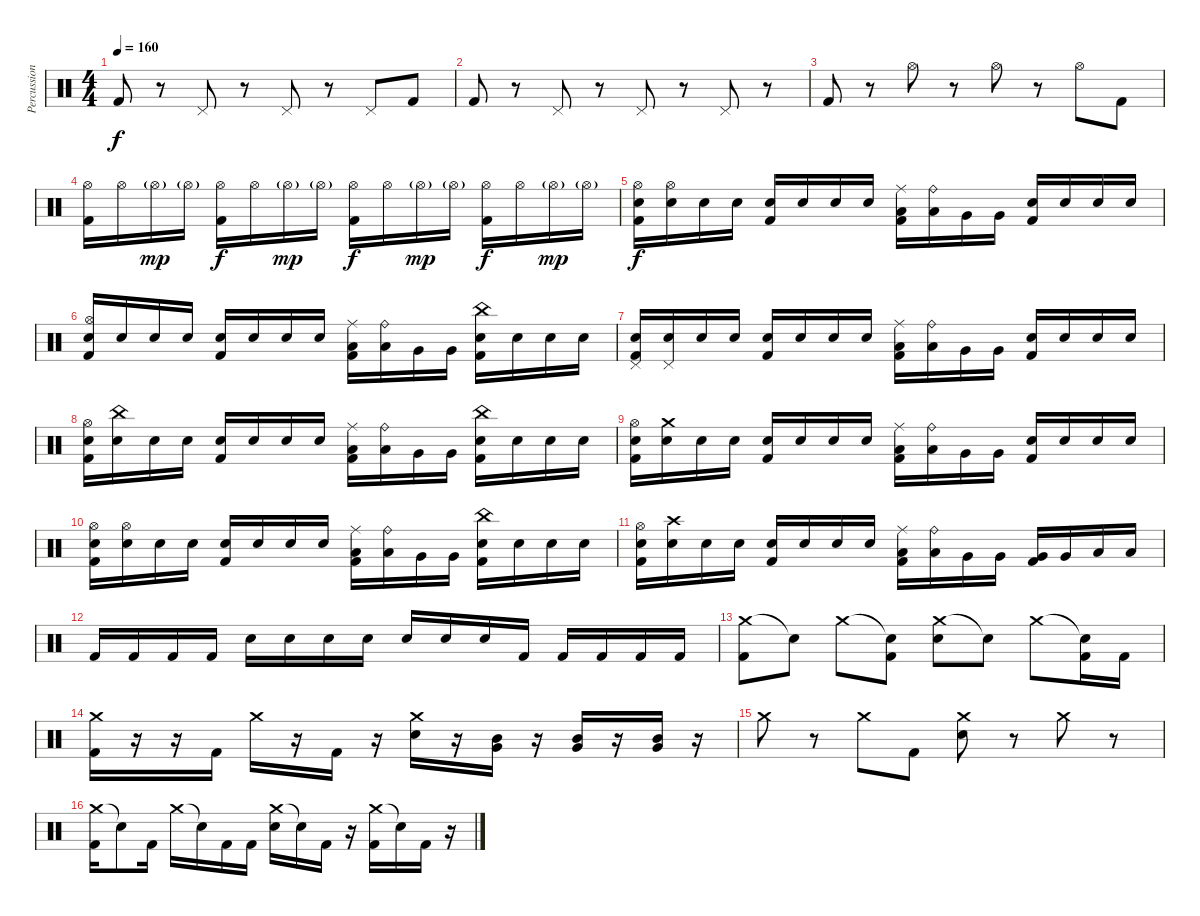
\track ("Percussion" "Percussion") {instrument percussion}
\staff {score}
\articulation defaults
\ts (4 4)
\tempo 160
\clef neutral
\ks c "Kick (hit) 2".8{dy f}
r.8 "Pedal Hi-Hat (hit)".8 r.8 "Pedal Hi-Hat (hit)".8 r.8 "Pedal Hi-Hat (hit)".8 "Kick (hit) 2".8 |
"Kick (hit) 2".8 r.8 "Pedal Hi-Hat (hit)".8 r.8 "Pedal Hi-Hat (hit)".8 r.8 "Pedal Hi-Hat (hit)".8 r.8 |
"Kick (hit) 2".8 r.8 "Hi-Hat (open)".8 r.8 "Hi-Hat (open)".8 r.8 "Hi-Hat (open)".8 "Kick (hit) 2".8 |
("Hi-Hat (open)" "Kick (hit) 2").16 "Hi-Hat (open)".16 "Hi-Hat (open)"{g}.16{dy mp} "Hi-Hat (open)"{g}.16 ("Hi-Hat (open)" "Kick (hit) 2").16{dy f} "Hi-Hat (open)".16 "Hi-Hat (open)"{g}.16{dy mp} "Hi-Hat (open)"{g}.16 ("Hi-Hat (open)" "Kick (hit) 2").16{dy f} "Hi-Hat (open)".16 "Hi-Hat (open)"{g}.16{dy mp} "Hi-Hat (open)"{g}.16 ("Hi-Hat (open)" "Kick (hit) 2").16{dy f} "Hi-Hat (open)".16 "Hi-Hat (open)"{g}.16{dy mp} "Hi-Hat (open)"{g}.16 |
("Hi-Hat (open)" "Electric Snare (hit)" "Kick (hit) 2").16{dy f} ("Hi-Hat (open)" "Electric Snare (hit)").16 "Electric Snare (hit)".16 "Electric Snare (hit)".16 ("Electric Snare (hit)" "Kick (hit) 2").16 "Electric Snare (hit)".16 "Electric Snare (hit)".16 "Electric Snare (hit)".16 ("Ride (middle)" "Low Tom (hit)" "Kick (hit) 2").16 ("Ride (bell)" "Low Tom (hit)").16 "Very Low Tom (hit)".16 "Very Low Tom (hit)".16 ("Electric Snare (hit)" "Kick (hit) 2").16 "Electric Snare (hit)".16 "Electric Snare (hit)".16 "Electric Snare (hit)".16 |
("Hi-Hat (open)" "Electric Snare (hit)" "Kick (hit) 2").16 "Electric Snare (hit)".16 "Electric Snare (hit)".16 "Electric Snare (hit)".16 ("Electric Snare (hit)" "Kick (hit) 2").16 "Electric Snare (hit)".16 "Electric Snare (hit)".16 "Electric Snare (hit)".16 ("Ride (middle)" "Low Tom (hit)" "Kick (hit) 2").16 ("Ride (bell)" "Low Tom (hit)").16 "Very Low Tom (hit)".16 "Very Low Tom (hit)".16 ("China (hit)" "Electric Snare (hit)" "Kick (hit) 2").16 "Electric Snare (hit)".16 "Electric Snare (hit)".16 "Electric Snare (hit)".16 |
("Pedal Hi-Hat (hit)" "Electric Snare (hit)" "Kick (hit) 2").16 ("Pedal Hi-Hat (hit)" "Electric Snare (hit)").16 "Electric Snare (hit)".16 "Electric Snare (hit)".16 ("Electric Snare (hit)" "Kick (hit) 2").16 "Electric Snare (hit)".16 "Electric Snare (hit)".16 "Electric Snare (hit)".16 ("Ride (middle)" "Low Tom (hit)" "Kick (hit) 2").16 ("Ride (bell)" "Low Tom (hit)").16 "Very Low Tom (hit)".16 "Very Low Tom (hit)".16 ("Electric Snare (hit)" "Kick (hit) 2").16 "Electric Snare (hit)".16 "Electric Snare (hit)".16 "Electric Snare (hit)".16 |
("Hi-Hat (open)" "Electric Snare (hit)" "Kick (hit) 2").16 ("China (hit)" "Electric Snare (hit)").16 "Electric Snare (hit)".16 "Electric Snare (hit)".16 ("Electric Snare (hit)" "Kick (hit) 2").16 "Electric Snare (hit)".16 "Electric Snare (hit)".16 "Electric Snare (hit)".16 ("Ride (middle)" "Low Tom (hit)" "Kick (hit) 2").16 ("Ride (bell)" "Low Tom (hit)").16 "Very Low Tom (hit)".16 "Very Low Tom (hit)".16 ("China (hit)" "Electric Snare (hit)" "Kick (hit) 2").16 "Electric Snare (hit)".16 "Electric Snare (hit)".16 "Electric Snare (hit)".16 |
("Hi-Hat (open)" "Electric Snare (hit)" "Kick (hit) 2").16 ("Crash medium (hit)" "Electric Snare (hit)").16 "Electric Snare (hit)".16 "Electric Snare (hit)".16 ("Electric Snare (hit)" "Kick (hit) 2").16 "Electric Snare (hit)".16 "Electric Snare (hit)".16 "Electric Snare (hit)".16 ("Ride (middle)" "Low Tom (hit)" "Kick (hit) 2").16 ("Ride (bell)" "Low Tom (hit)").16 "Very Low Tom (hit)".16 "Very Low Tom (hit)".16 ("Electric Snare (hit)" "Kick (hit) 2").16 "Electric Snare (hit)".16 "Electric Snare (hit)".16 "Electric Snare (hit)".16 |
("Hi-Hat (open)" "Electric Snare (hit)" "Kick (hit) 2").16 ("Hi-Hat (open)" "Electric Snare (hit)").16 "Electric Snare (hit)".16 "Electric Snare (hit)".16 ("Electric Snare (hit)" "Kick (hit) 2").16 "Electric Snare (hit)".16 "Electric Snare (hit)".16 "Electric Snare (hit)".16 ("Ride (middle)" "Low Tom (hit)" "Kick (hit) 2").16 ("Ride (bell)" "Low Tom (hit)").16 "Very Low Tom (hit)".16 "Very Low Tom (hit)".16 ("China (hit)" "Electric Snare (hit)" "Kick (hit) 2").16 "Electric Snare (hit)".16 "Electric Snare (hit)".16 "Electric Snare (hit)".16 |
("Hi-Hat (open)" "Electric Snare (hit)" "Kick (hit) 2").16 ("Crash high (hit)" "Electric Snare (hit)").16 "Electric Snare (hit)".16 "Electric Snare (hit)".16 ("Electric Snare (hit)" "Kick (hit) 2").16 "Electric Snare (hit)".16 "Electric Snare (hit)".16 "Electric Snare (hit)".16 ("Ride (middle)" "Low Tom (hit)" "Kick (hit) 2").16 ("Ride (bell)" "Low Tom (hit)").16 "Very Low Tom (hit)".16 "Very Low Tom (hit)".16 ("Very Low Tom (hit)" "Kick (hit) 2").16 "Very Low Tom (hit)".16 "Low Floor Tom (hit)".16 "Low Floor Tom (hit)".16 |
"Kick (hit) 2".16 "Kick (hit) 2".16 "Kick (hit) 2".16 "Kick (hit) 2".16 "Electric Snare (hit)".16 "Electric Snare (hit)".16 "Electric Snare (hit)".16 "Electric Snare (hit)".16 "Electric Snare (hit)".16 "Electric Snare (hit)".16 "Electric Snare (hit)".16 "Kick (hit) 2".16 "Kick (hit) 2".16 "Kick (hit) 2".16 "Kick (hit) 2".16 "Kick (hit) 2".16 |
("Crash medium (hit)" "Kick (hit) 2").8 "Snare (hit)"{t}.8 "Crash medium (hit)".8 ("Snare (hit)"{t} "Kick (hit) 2").8 ("Crash medium (hit)" "Electric Snare (hit)").8 "Snare (hit)"{t}.8 "Crash medium (hit)".8 ("Snare (hit)"{t} "Kick (hit) 2").16 "Kick (hit) 2".16 |
("Crash medium (hit)" "Kick (hit) 2").16 r.16 r.16 "Kick (hit) 2".16 "Crash medium (hit)".16 r.16 "Kick (hit) 2".16 r.16 ("Crash medium (hit)" "Electric Snare (hit)").16 r.16 ("Mid Tom (hit)" "Very Low Tom (hit)").16 r.16 ("Mid Tom (hit)" "Very Low Tom (hit)").16 r.16 ("Mid Tom (hit)" "Very Low Tom (hit)").16 r.16 |
"Crash medium (hit)".8 r.8 "Crash medium (hit)".8 "Kick (hit) 2".8 ("Crash medium (hit)" "Electric Snare (hit)").8 r.8 "Crash medium (hit)".8 r.8 |
("Crash medium (hit)" "Kick (hit) 2").16 "Snare (hit)"{t}.8 "Kick (hit) 2".16 "Crash medium (hit)".16 "Snare (hit)"{t}.16 "Kick (hit) 2".16 "Kick (hit) 2".16 ("Crash medium (hit)" "Electric Snare (hit)").16 "Snare (hit)"{t}.16 "Kick (hit) 2".16 r.16 ("Crash medium (hit)" "Kick (hit) 2").16 "Snare (hit)"{t}.16 "Kick (hit) 2".16 r.16
